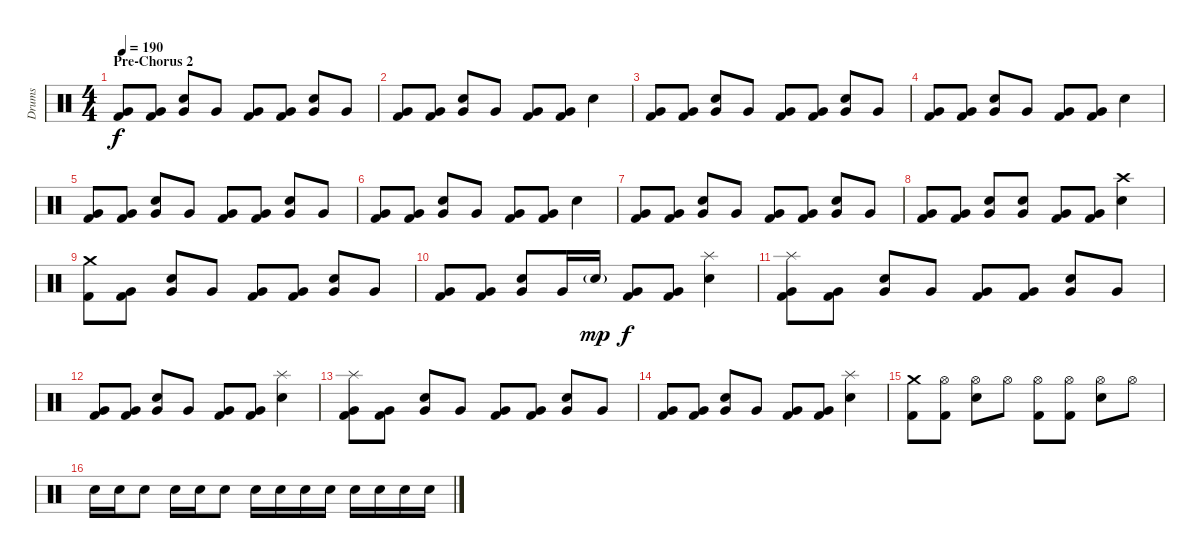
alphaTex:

\track ("Drums" "Drums") {instrument percussion}
\staff {score}
\articulation defaults
\ts (4 4)
\section ("" "Pre-Chorus 2")
\tempo 190
\clef neutral
\ks c
("Very Low Tom (hit)" "Kick (hit) 2").8{dy f} ("Very Low Tom (hit)" "Kick (hit) 2").8 ("Electric Snare (hit)" "Very Low Tom (hit)").8 "Very Low Tom (hit)".8 ("Very Low Tom (hit)" "Kick (hit) 2").8 ("Very Low Tom (hit)" "Kick (hit) 2").8 ("Electric Snare (hit)" "Very Low Tom (hit)").8 "Very Low Tom (hit)".8 |
("Very Low Tom (hit)" "Kick (hit) 2").8 ("Very Low Tom (hit)" "Kick (hit) 2").8 ("Electric Snare (hit)" "Very Low Tom (hit)").8 "Very Low Tom (hit)".8 ("Very Low Tom (hit)" "Kick (hit) 2").8 ("Very Low Tom (hit)" "Kick (hit) 2").8 "Electric Snare (hit)".4 |
("Very Low Tom (hit)" "Kick (hit) 2").8 ("Very Low Tom (hit)" "Kick (hit) 2").8 ("Electric Snare (hit)" "Very Low Tom (hit)").8 "Very Low Tom (hit)".8 ("Very Low Tom (hit)" "Kick (hit) 2").8 ("Very Low Tom (hit)" "Kick (hit) 2").8 ("Electric Snare (hit)" "Very Low Tom (hit)").8 "Very Low Tom (hit)".8 |
("Very Low Tom (hit)" "Kick (hit) 2").8 ("Very Low Tom (hit)" "Kick (hit) 2").8 ("Electric Snare (hit)" "Very Low Tom (hit)").8 "Very Low Tom (hit)".8 ("Very Low Tom (hit)" "Kick (hit) 2").8 ("Very Low Tom (hit)" "Kick (hit) 2").8 "Electric Snare (hit)".4 |
("Very Low Tom (hit)" "Kick (hit) 2").8 ("Very Low Tom (hit)" "Kick (hit) 2").8 ("Electric Snare (hit)" "Very Low Tom (hit)").8 "Very Low Tom (hit)".8 ("Very Low Tom (hit)" "Kick (hit) 2").8 ("Very Low Tom (hit)" "Kick (hit) 2").8 ("Electric Snare (hit)" "Very Low Tom (hit)").8 "Very Low Tom (hit)".8 |
("Very Low Tom (hit)" "Kick (hit) 2").8 ("Very Low Tom (hit)" "Kick (hit) 2").8 ("Electric Snare (hit)" "Very Low Tom (hit)").8 "Very Low Tom (hit)".8 ("Very Low Tom (hit)" "Kick (hit) 2").8 ("Very Low Tom (hit)" "Kick (hit) 2").8 "Electric Snare (hit)".4 |
("Very Low Tom (hit)" "Kick (hit) 2").8 ("Very Low Tom (hit)" "Kick (hit) 2").8 ("Electric Snare (hit)" "Very Low Tom (hit)").8 "Very Low Tom (hit)".8 ("Very Low Tom (hit)" "Kick (hit) 2").8 ("Very Low Tom (hit)" "Kick (hit) 2").8 ("Electric Snare (hit)" "Very Low Tom (hit)").8 "Very Low Tom (hit)".8 |
("Very Low Tom (hit)" "Kick (hit) 2").8 ("Very Low Tom (hit)" "Kick (hit) 2").8 ("Electric Snare (hit)" "Very Low Tom (hit)").8 ("Electric Snare (hit)" "Very Low Tom (hit)").8 ("Very Low Tom (hit)" "Kick (hit) 2").8 ("Very Low Tom (hit)" "Kick (hit) 2").8 ("Crash high (hit)" "Electric Snare (hit)").4 |
("Crash medium (hit)" "Kick (hit) 2").8 ("Very Low Tom (hit)" "Kick (hit) 2").8 ("Electric Snare (hit)" "Very Low Tom (hit)").8 "Very Low Tom (hit)".8 ("Very Low Tom (hit)" "Kick (hit) 2").8 ("Very Low Tom (hit)" "Kick (hit) 2").8 ("Electric Snare (hit)" "Very Low Tom (hit)").8 "Very Low Tom (hit)".8 |
("Very Low Tom (hit)" "Kick (hit) 2").8 ("Very Low Tom (hit)" "Kick (hit) 2").8 ("Electric Snare (hit)" "Very Low Tom (hit)").8 "Very Low Tom (hit)".16 "Electric Snare (hit)"{g}.16{dy mp} ("Very Low Tom (hit)" "Kick (hit) 2").8{dy f} ("Very Low Tom (hit)" "Kick (hit) 2").8 ("Splash (hit)" "Electric Snare (hit)").4 |
("Splash (hit)" "Very Low Tom (hit)" "Kick (hit) 2").8 ("Very Low Tom (hit)" "Kick (hit) 2").8 ("Electric Snare (hit)" "Very Low Tom (hit)").8 "Very Low Tom (hit)".8 ("Very Low Tom (hit)" "Kick (hit) 2").8 ("Very Low Tom (hit)" "Kick (hit) 2").8 ("Electric Snare (hit)" "Very Low Tom (hit)").8 "Very Low Tom (hit)".8 |
("Very Low Tom (hit)" "Kick (hit) 2").8 ("Very Low Tom (hit)" "Kick (hit) 2").8 ("Electric Snare (hit)" "Very Low Tom (hit)").8 "Very Low Tom (hit)".8 ("Very Low Tom (hit)" "Kick (hit) 2").8 ("Very Low Tom (hit)" "Kick (hit) 2").8 ("Splash (hit)" "Electric Snare (hit)").4 |
("Splash (hit)" "Very Low Tom (hit)" "Kick (hit) 2").8 ("Very Low Tom (hit)" "Kick (hit) 2").8 ("Electric Snare (hit)" "Very Low Tom (hit)").8 "Very Low Tom (hit)".8 ("Very Low Tom (hit)" "Kick (hit) 2").8 ("Very Low Tom (hit)" "Kick (hit) 2").8 ("Electric Snare (hit)" "Very Low Tom (hit)").8 "Very Low Tom (hit)".8 |
("Very Low Tom (hit)" "Kick (hit) 2").8 ("Very Low Tom (hit)" "Kick (hit) 2").8 ("Electric Snare (hit)" "Very Low Tom (hit)").8 "Very Low Tom (hit)".8 ("Very Low Tom (hit)" "Kick (hit) 2").8 ("Very Low Tom (hit)" "Kick (hit) 2").8 ("Splash (hit)" "Electric Snare (hit)").4 |
("Crash medium (hit)" "Kick (hit) 2").8 ("Hi-Hat (open)" "Kick (hit) 2").8 ("Hi-Hat (open)" "Electric Snare (hit)").8 "Hi-Hat (open)".8 ("Hi-Hat (open)" "Kick (hit) 2").8 ("Hi-Hat (open)" "Kick (hit) 2").8 ("Hi-Hat (open)" "Electric Snare (hit)").8 "Hi-Hat (open)".8 |
"Electric Snare (hit)".16 "Electric Snare (hit)".16 "Electric Snare (hit)".8 "Electric Snare (hit)".16 "Electric Snare (hit)".16 "Electric Snare (hit)".8 "Electric Snare (hit)".16 "Electric Snare (hit)".16 "Electric Snare (hit)".16 "Electric Snare (hit)".16 "Electric Snare (hit)".16 "Electric Snare (hit)".16 "Electric Snare (hit)".16 "Electric Snare (hit)".16
